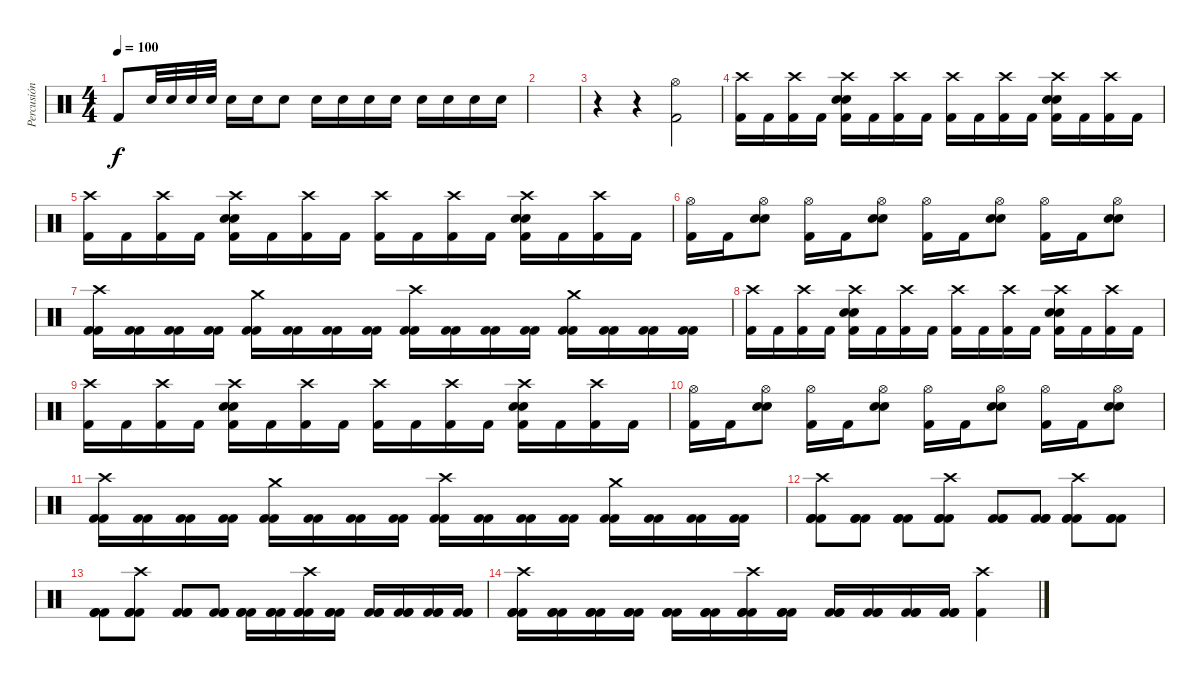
\track ("Percusión" "Percusión") {instrument percussion}
\staff {score}
\articulation defaults
\ts (4 4)
\tempo 100
\clef neutral
\ks c "Kick (hit) 2".8{dy f} "Snare (hit) 2".32 "Snare (hit) 2".32 "Snare (hit) 2".32 "Snare (hit) 2".32 "Snare (hit) 2".16 "Snare (hit) 2".16 "Snare (hit) 2".8 "Snare (hit) 2".16 "Snare (hit) 2".16 "Snare (hit) 2".16 "Snare (hit) 2".16 "Snare (hit) 2".16 "Snare (hit) 2".16 "Snare (hit) 2".16 "Snare (hit) 2".16
|
|
r.4 r.4 ("Hi-Hat (open)" "Kick (hit) 2").2 |
("Crash high (hit)" "Kick (hit) 2").16 "Kick (hit) 2".16 ("Crash high (hit)" "Kick (hit) 2").16 "Kick (hit) 2".16 ("Crash high (hit)" "Electric Snare (hit)" "Electric Snare (hit)" "Kick (hit) 2").16 "Kick (hit) 2".16 ("Crash high (hit)" "Kick (hit) 2").16 "Kick (hit) 2".16 ("Crash high (hit)" "Kick (hit) 2").16 "Kick (hit) 2".16 ("Crash high (hit)" "Kick (hit) 2").16 "Kick (hit) 2".16 ("Crash high (hit)" "Electric Snare (hit)" "Electric Snare (hit)" "Kick (hit) 2").16 "Kick (hit) 2".16 ("Crash high (hit)" "Kick (hit) 2").16 "Kick (hit) 2".16 |
("Crash high (hit)" "Kick (hit) 2").16 "Kick (hit) 2".16 ("Crash high (hit)" "Kick (hit) 2").16 "Kick (hit) 2".16 ("Crash high (hit)" "Electric Snare (hit)" "Electric Snare (hit)" "Kick (hit) 2").16 "Kick (hit) 2".16 ("Crash high (hit)" "Kick (hit) 2").16 "Kick (hit) 2".16 ("Crash high (hit)" "Kick (hit) 2").16 "Kick (hit) 2".16 ("Crash high (hit)" "Kick (hit) 2").16 "Kick (hit) 2".16 ("Crash high (hit)" "Electric Snare (hit)" "Electric Snare (hit)" "Kick (hit) 2").16 "Kick (hit) 2".16 ("Crash high (hit)" "Kick (hit) 2").16 "Kick (hit) 2".16 |
("Hi-Hat (open)" "Kick (hit) 2").16 "Kick (hit) 2".16 ("Hi-Hat (open)" "Electric Snare (hit)" "Electric Snare (hit)").8 ("Hi-Hat (open)" "Kick (hit) 2").16 "Kick (hit) 2".16 ("Hi-Hat (open)" "Electric Snare (hit)" "Electric Snare (hit)").8 ("Hi-Hat (open)" "Kick (hit) 2").16 "Kick (hit) 2".16 ("Hi-Hat (open)" "Electric Snare (hit)" "Electric Snare (hit)").8 ("Hi-Hat (open)" "Kick (hit) 2").16 "Kick (hit) 2".16 ("Hi-Hat (open)" "Electric Snare (hit)" "Electric Snare (hit)").8 |
("Crash high (hit)" "Kick (hit) 2" "Kick (hit) 2").16 ("Kick (hit) 2" "Kick (hit) 2").16 ("Kick (hit) 2" "Kick (hit) 2").16 ("Kick (hit) 2" "Kick (hit) 2").16 ("Crash medium (hit)" "Kick (hit) 2" "Kick (hit) 2").16 ("Kick (hit) 2" "Kick (hit) 2").16 ("Kick (hit) 2" "Kick (hit) 2").16 ("Kick (hit) 2" "Kick (hit) 2").16 ("Crash high (hit)" "Kick (hit) 2" "Kick (hit) 2").16 ("Kick (hit) 2" "Kick (hit) 2").16 ("Kick (hit) 2" "Kick (hit) 2").16 ("Kick (hit) 2" "Kick (hit) 2").16 ("Crash medium (hit)" "Kick (hit) 2" "Kick (hit) 2").16 ("Kick (hit) 2" "Kick (hit) 2").16 ("Kick (hit) 2" "Kick (hit) 2").16 ("Kick (hit) 2" "Kick (hit) 2").16 |
("Crash high (hit)" "Kick (hit) 2").16 "Kick (hit) 2".16 ("Crash high (hit)" "Kick (hit) 2").16 "Kick (hit) 2".16 ("Crash high (hit)" "Electric Snare (hit)" "Electric Snare (hit)" "Kick (hit) 2").16 "Kick (hit) 2".16 ("Crash high (hit)" "Kick (hit) 2").16 "Kick (hit) 2".16 ("Crash high (hit)" "Kick (hit) 2").16 "Kick (hit) 2".16 ("Crash high (hit)" "Kick (hit) 2").16 "Kick (hit) 2".16 ("Crash high (hit)" "Electric Snare (hit)" "Electric Snare (hit)" "Kick (hit) 2").16 "Kick (hit) 2".16 ("Crash high (hit)" "Kick (hit) 2").16 "Kick (hit) 2".16 |
("Crash high (hit)" "Kick (hit) 2").16 "Kick (hit) 2".16 ("Crash high (hit)" "Kick (hit) 2").16 "Kick (hit) 2".16 ("Crash high (hit)" "Electric Snare (hit)" "Electric Snare (hit)" "Kick (hit) 2").16 "Kick (hit) 2".16 ("Crash high (hit)" "Kick (hit) 2").16 "Kick (hit) 2".16 ("Crash high (hit)" "Kick (hit) 2").16 "Kick (hit) 2".16 ("Crash high (hit)" "Kick (hit) 2").16 "Kick (hit) 2".16 ("Crash high (hit)" "Electric Snare (hit)" "Electric Snare (hit)" "Kick (hit) 2").16 "Kick (hit) 2".16 ("Crash high (hit)" "Kick (hit) 2").16 "Kick (hit) 2".16 |
("Hi-Hat (open)" "Kick (hit) 2").16 "Kick (hit) 2".16 ("Hi-Hat (open)" "Electric Snare (hit)" "Electric Snare (hit)").8 ("Hi-Hat (open)" "Kick (hit) 2").16 "Kick (hit) 2".16 ("Hi-Hat (open)" "Electric Snare (hit)" "Electric Snare (hit)").8 ("Hi-Hat (open)" "Kick (hit) 2").16 "Kick (hit) 2".16 ("Hi-Hat (open)" "Electric Snare (hit)" "Electric Snare (hit)").8 ("Hi-Hat (open)" "Kick (hit) 2").16 "Kick (hit) 2".16 ("Hi-Hat (open)" "Electric Snare (hit)" "Electric Snare (hit)").8 |
("Crash high (hit)" "Kick (hit) 2" "Kick (hit) 2").16 ("Kick (hit) 2" "Kick (hit) 2").16 ("Kick (hit) 2" "Kick (hit) 2").16 ("Kick (hit) 2" "Kick (hit) 2").16 ("Crash medium (hit)" "Kick (hit) 2" "Kick (hit) 2").16 ("Kick (hit) 2" "Kick (hit) 2").16 ("Kick (hit) 2" "Kick (hit) 2").16 ("Kick (hit) 2" "Kick (hit) 2").16 ("Crash high (hit)" "Kick (hit) 2" "Kick (hit) 2").16 ("Kick (hit) 2" "Kick (hit) 2").16 ("Kick (hit) 2" "Kick (hit) 2").16 ("Kick (hit) 2" "Kick (hit) 2").16 ("Crash medium (hit)" "Kick (hit) 2" "Kick (hit) 2").16 ("Kick (hit) 2" "Kick (hit) 2").16 ("Kick (hit) 2" "Kick (hit) 2").16 ("Kick (hit) 2" "Kick (hit) 2").16 |
("Crash high (hit)" "Kick (hit) 2" "Kick (hit) 2" "Kick (hit) 2").8 ("Kick (hit) 2" "Kick (hit) 2" "Kick (hit) 2").8 ("Kick (hit) 2" "Kick (hit) 2" "Kick (hit) 2").8 ("Crash high (hit)" "Kick (hit) 2" "Kick (hit) 2" "Kick (hit) 2").8 ("Kick (hit) 2" "Kick (hit) 2" "Kick (hit) 2").8 ("Kick (hit) 2" "Kick (hit) 2" "Kick (hit) 2").8 ("Crash high (hit)" "Kick (hit) 2" "Kick (hit) 2" "Kick (hit) 2").8 ("Kick (hit) 2" "Kick (hit) 2" "Kick (hit) 2").8 |
("Kick (hit) 2" "Kick (hit) 2" "Kick (hit) 2").8 ("Crash high (hit)" "Kick (hit) 2" "Kick (hit) 2" "Kick (hit) 2").8 ("Kick (hit) 2" "Kick (hit) 2" "Kick (hit) 2").8 ("Kick (hit) 2" "Kick (hit) 2" "Kick (hit) 2").8 ("Kick (hit) 2" "Kick (hit) 2" "Kick (hit) 2").16 ("Kick (hit) 2" "Kick (hit) 2" "Kick (hit) 2").16 ("Crash high (hit)" "Kick (hit) 2" "Kick (hit) 2" "Kick (hit) 2").16 ("Kick (hit) 2" "Kick (hit) 2" "Kick (hit) 2").16 ("Kick (hit) 2" "Kick (hit) 2" "Kick (hit) 2").16 ("Kick (hit) 2" "Kick (hit) 2" "Kick (hit) 2").16 ("Kick (hit) 2" "Kick (hit) 2" "Kick (hit) 2").16 ("Kick (hit) 2" "Kick (hit) 2" "Kick (hit) 2").16 |
("Crash high (hit)" "Kick (hit) 2" "Kick (hit) 2" "Kick (hit) 2").16 ("Kick (hit) 2" "Kick (hit) 2" "Kick (hit) 2").16 ("Kick (hit) 2" "Kick (hit) 2" "Kick (hit) 2").16 ("Kick (hit) 2" "Kick (hit) 2" "Kick (hit) 2").16 ("Kick (hit) 2" "Kick (hit) 2" "Kick (hit) 2").16 ("Kick (hit) 2" "Kick (hit) 2" "Kick (hit) 2").16 ("Crash high (hit)" "Kick (hit) 2" "Kick (hit) 2" "Kick (hit) 2").16 ("Kick (hit) 2" "Kick (hit) 2" "Kick (hit) 2").16 ("Kick (hit) 2" "Kick (hit) 2" "Kick (hit) 2").16 ("Kick (hit) 2" "Kick (hit) 2" "Kick (hit) 2").16 ("Kick (hit) 2" "Kick (hit) 2" "Kick (hit) 2").16 ("Kick (hit) 2" "Kick (hit) 2" "Kick (hit) 2").16 ("Crash high (hit)" "Kick (hit) 2").4
